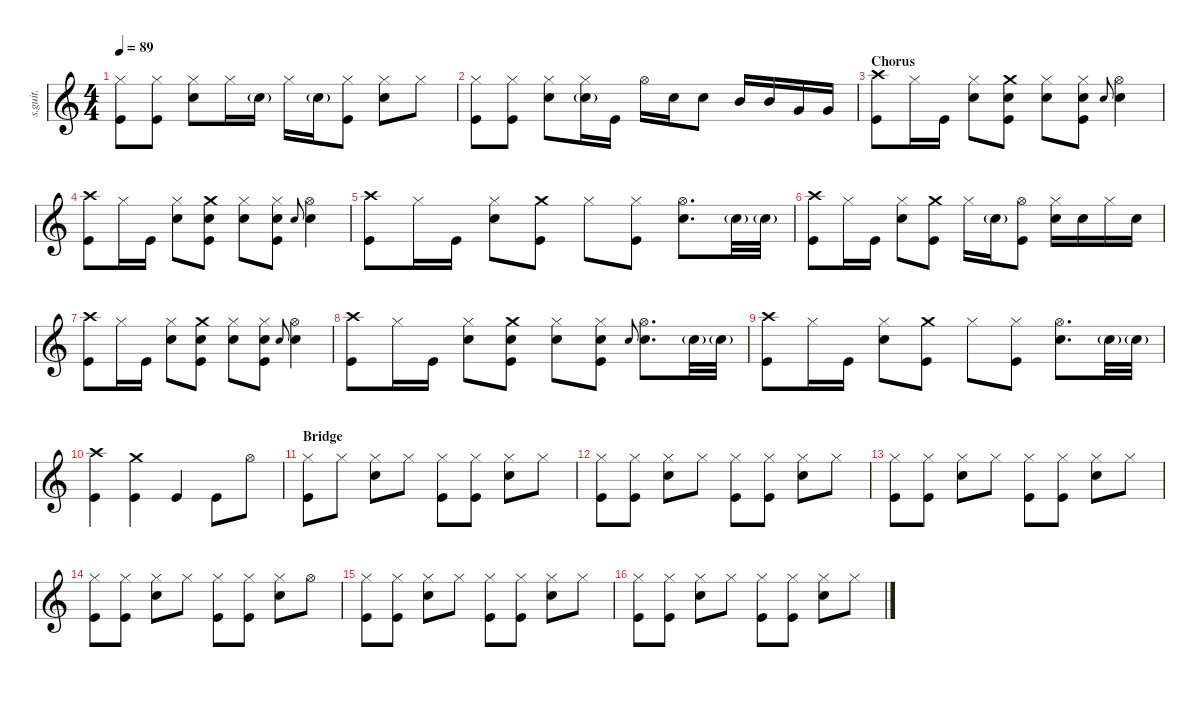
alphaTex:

\defaultSystemsLayout 4
\hideDynamics
\bracketExtendMode nobrackets
\track ("Chad Smith" "s.guit.") {instrument percussion}
\staff {score}
\articulation defaults
\ts (4 4)
\tempo 89
\clef g2
\ks c
("Hi-Hat (closed)" "Kick (hit)").8{lyrics (0 "") lyrics (1 "") lyrics (2 "") lyrics (3 "") lyrics (4 "") dy f} ("Hi-Hat (closed)" "Kick (hit)").8{lyrics (0 "") lyrics (1 "") lyrics (2 "") lyrics (3 "") lyrics (4 "")} ("Hi-Hat (closed)" "Snare (hit) 2").8{lyrics (0 "") lyrics (1 "") lyrics (2 "") lyrics (3 "") lyrics (4 "")} "Hi-Hat (closed)".16{lyrics (0 "") lyrics (1 "") lyrics (2 "") lyrics (3 "") lyrics (4 "")} "Snare (hit) 2"{g}.16{lyrics (0 "") lyrics (1 "") lyrics (2 "") lyrics (3 "") lyrics (4 "") dy ppp} "Hi-Hat (closed)".16{lyrics (0 "") lyrics (1 "") lyrics (2 "") lyrics (3 "") lyrics (4 "") dy fff} "Snare (hit) 2"{g}.16{lyrics (0 "") lyrics (1 "") lyrics (2 "") lyrics (3 "") lyrics (4 "") dy ppp} ("Hi-Hat (closed)" "Kick (hit)").8{lyrics (0 "") lyrics (1 "") lyrics (2 "") lyrics (3 "") lyrics (4 "") dy f} ("Hi-Hat (closed)" "Snare (hit) 2").8{lyrics (0 "") lyrics (1 "") lyrics (2 "") lyrics (3 "") lyrics (4 "")} "Hi-Hat (closed)".8{lyrics (0 "") lyrics (1 "") lyrics (2 "") lyrics (3 "") lyrics (4 "")} |
("Hi-Hat (closed)" "Kick (hit)").8{lyrics (0 "") lyrics (1 "") lyrics (2 "") lyrics (3 "") lyrics (4 "")} ("Hi-Hat (closed)" "Kick (hit)").8{lyrics (0 "") lyrics (1 "") lyrics (2 "") lyrics (3 "") lyrics (4 "")} ("Hi-Hat (closed)" "Snare (hit) 2").8{lyrics (0 "") lyrics (1 "") lyrics (2 "") lyrics (3 "") lyrics (4 "")} ("Hi-Hat (closed)" "Snare (hit) 2"{g}).16{lyrics (0 "") lyrics (1 "") lyrics (2 "") lyrics (3 "") lyrics (4 "")} "Kick (hit)".16{lyrics (0 "") lyrics (1 "") lyrics (2 "") lyrics (3 "") lyrics (4 "")} "Hi-Hat (open)".16{lyrics (0 "") lyrics (1 "") lyrics (2 "") lyrics (3 "") lyrics (4 "")} "Snare (hit) 2".16{lyrics (0 "") lyrics (1 "") lyrics (2 "") lyrics (3 "") lyrics (4 "")} "Snare (hit) 2".8{lyrics (0 "") lyrics (1 "") lyrics (2 "") lyrics (3 "") lyrics (4 "")} "Mid Tom (hit)".16{lyrics (0 "") lyrics (1 "") lyrics (2 "") lyrics (3 "") lyrics (4 "") dy fff} "Mid Tom (hit)".16{lyrics (0 "") lyrics (1 "") lyrics (2 "") lyrics (3 "") lyrics (4 "")} "Very Low Tom (hit)".16{lyrics (0 "") lyrics (1 "") lyrics (2 "") lyrics (3 "") lyrics (4 "")} "Very Low Tom (hit)".16{lyrics (0 "") lyrics (1 "") lyrics (2 "") lyrics (3 "") lyrics (4 "")} |
\section ("" "Chorus")
("Crash high (hit)" "Kick (hit)").8{lyrics (0 "") lyrics (1 "") lyrics (2 "") lyrics (3 "") lyrics (4 "") dy f} "Hi-Hat (closed)".16{lyrics (0 "") lyrics (1 "") lyrics (2 "") lyrics (3 "") lyrics (4 "")} "Kick (hit)".16{lyrics (0 "") lyrics (1 "") lyrics (2 "") lyrics (3 "") lyrics (4 "")} ("Hi-Hat (closed)" "Snare (hit) 2").8{lyrics (0 "") lyrics (1 "") lyrics (2 "") lyrics (3 "") lyrics (4 "")} ("Crash medium (hit)" "Hand Clap (hit)" "Kick (hit)").8{lyrics (0 "") lyrics (1 "") lyrics (2 "") lyrics (3 "") lyrics (4 "")} ("Hi-Hat (closed)" "Hand Clap (hit)").8{lyrics (0 "") lyrics (1 "") lyrics (2 "") lyrics (3 "") lyrics (4 "")} ("Hi-Hat (closed)" "Hand Clap (hit)" "Kick (hit)").8{lyrics (0 "") lyrics (1 "") lyrics (2 "") lyrics (3 "") lyrics (4 "")} "Snare (hit) 2".8{lyrics (0 "") lyrics (1 "") lyrics (2 "") lyrics (3 "") lyrics (4 "") gr onbeat} ("Hi-Hat (open)" "Snare (hit) 2").4{lyrics (0 "") lyrics (1 "") lyrics (2 "") lyrics (3 "") lyrics (4 "")} |
("Crash high (hit)" "Kick (hit)").8{lyrics (0 "") lyrics (1 "") lyrics (2 "") lyrics (3 "") lyrics (4 "")} "Hi-Hat (closed)".16{lyrics (0 "") lyrics (1 "") lyrics (2 "") lyrics (3 "") lyrics (4 "")} "Kick (hit)".16{lyrics (0 "") lyrics (1 "") lyrics (2 "") lyrics (3 "") lyrics (4 "")} ("Hi-Hat (closed)" "Snare (hit) 2").8{lyrics (0 "") lyrics (1 "") lyrics (2 "") lyrics (3 "") lyrics (4 "")} ("Crash medium (hit)" "Hand Clap (hit)" "Kick (hit)").8{lyrics (0 "") lyrics (1 "") lyrics (2 "") lyrics (3 "") lyrics (4 "")} ("Hi-Hat (closed)" "Hand Clap (hit)").8{lyrics (0 "") lyrics (1 "") lyrics (2 "") lyrics (3 "") lyrics (4 "")} ("Hi-Hat (closed)" "Hand Clap (hit)" "Kick (hit)").8{lyrics (0 "") lyrics (1 "") lyrics (2 "") lyrics (3 "") lyrics (4 "")} "Snare (hit) 2".8{lyrics (0 "") lyrics (1 "") lyrics (2 "") lyrics (3 "") lyrics (4 "") gr onbeat} ("Hi-Hat (open)" "Snare (hit) 2").4{lyrics (0 "") lyrics (1 "") lyrics (2 "") lyrics (3 "") lyrics (4 "")} |
("Crash high (hit)" "Kick (hit)").8{lyrics (0 "") lyrics (1 "") lyrics (2 "") lyrics (3 "") lyrics (4 "")} "Hi-Hat (closed)".16{lyrics (0 "") lyrics (1 "") lyrics (2 "") lyrics (3 "") lyrics (4 "")} "Kick (hit)".16{lyrics (0 "") lyrics (1 "") lyrics (2 "") lyrics (3 "") lyrics (4 "")} ("Hi-Hat (closed)" "Snare (hit) 2").8{lyrics (0 "") lyrics (1 "") lyrics (2 "") lyrics (3 "") lyrics (4 "")} ("Crash medium (hit)" "Kick (hit)").8{lyrics (0 "") lyrics (1 "") lyrics (2 "") lyrics (3 "") lyrics (4 "")} "Hi-Hat (closed)".8{lyrics (0 "") lyrics (1 "") lyrics (2 "") lyrics (3 "") lyrics (4 "") dy fff} ("Hi-Hat (closed)" "Kick (hit)").8{lyrics (0 "") lyrics (1 "") lyrics (2 "") lyrics (3 "") lyrics (4 "") dy f} ("Hi-Hat (open)" "Snare (hit) 2").8{d lyrics (0 "") lyrics (1 "") lyrics (2 "") lyrics (3 "") lyrics (4 "")} "Snare (hit) 2"{g}.32{lyrics (0 "") lyrics (1 "") lyrics (2 "") lyrics (3 "") lyrics (4 "") dy ppp} "Snare (hit) 2"{g}.32{lyrics (0 "") lyrics (1 "") lyrics (2 "") lyrics (3 "") lyrics (4 "")} |
("Crash high (hit)" "Kick (hit)").8{lyrics (0 "") lyrics (1 "") lyrics (2 "") lyrics (3 "") lyrics (4 "") dy f} "Hi-Hat (closed)".16{lyrics (0 "") lyrics (1 "") lyrics (2 "") lyrics (3 "") lyrics (4 "")} "Kick (hit)".16{lyrics (0 "") lyrics (1 "") lyrics (2 "") lyrics (3 "") lyrics (4 "")} ("Hi-Hat (closed)" "Snare (hit) 2").8{lyrics (0 "") lyrics (1 "") lyrics (2 "") lyrics (3 "") lyrics (4 "")} ("Crash medium (hit)" "Kick (hit)").8{lyrics (0 "") lyrics (1 "") lyrics (2 "") lyrics (3 "") lyrics (4 "")} "Hi-Hat (closed)".16{lyrics (0 "") lyrics (1 "") lyrics (2 "") lyrics (3 "") lyrics (4 "") dy fff} "Snare (hit) 2"{g}.16{lyrics (0 "") lyrics (1 "") lyrics (2 "") lyrics (3 "") lyrics (4 "") dy ppp} ("Hi-Hat (open)" "Kick (hit)").8{lyrics (0 "") lyrics (1 "") lyrics (2 "") lyrics (3 "") lyrics (4 "") dy f} ("Hi-Hat (closed)" "Snare (hit) 2").16{lyrics (0 "") lyrics (1 "") lyrics (2 "") lyrics (3 "") lyrics (4 "")} "Snare (hit) 2".16{lyrics (0 "") lyrics (1 "") lyrics (2 "") lyrics (3 "") lyrics (4 "")} "Hi-Hat (closed)".16{lyrics (0 "") lyrics (1 "") lyrics (2 "") lyrics (3 "") lyrics (4 "")} "Snare (hit) 2".16{lyrics (0 "") lyrics (1 "") lyrics (2 "") lyrics (3 "") lyrics (4 "")} |
("Crash high (hit)" "Kick (hit)").8{lyrics (0 "") lyrics (1 "") lyrics (2 "") lyrics (3 "") lyrics (4 "")} "Hi-Hat (closed)".16{lyrics (0 "") lyrics (1 "") lyrics (2 "") lyrics (3 "") lyrics (4 "")} "Kick (hit)".16{lyrics (0 "") lyrics (1 "") lyrics (2 "") lyrics (3 "") lyrics (4 "")} ("Hi-Hat (closed)" "Snare (hit) 2").8{lyrics (0 "") lyrics (1 "") lyrics (2 "") lyrics (3 "") lyrics (4 "")} ("Crash medium (hit)" "Hand Clap (hit)" "Kick (hit)").8{lyrics (0 "") lyrics (1 "") lyrics (2 "") lyrics (3 "") lyrics (4 "")} ("Hi-Hat (closed)" "Hand Clap (hit)").8{lyrics (0 "") lyrics (1 "") lyrics (2 "") lyrics (3 "") lyrics (4 "")} ("Hi-Hat (closed)" "Hand Clap (hit)" "Kick (hit)").8{lyrics (0 "") lyrics (1 "") lyrics (2 "") lyrics (3 "") lyrics (4 "")} "Snare (hit) 2".8{lyrics (0 "") lyrics (1 "") lyrics (2 "") lyrics (3 "") lyrics (4 "") gr onbeat} ("Hi-Hat (open)" "Snare (hit) 2").4{lyrics (0 "") lyrics (1 "") lyrics (2 "") lyrics (3 "") lyrics (4 "")} |
("Crash high (hit)" "Kick (hit)").8{lyrics (0 "") lyrics (1 "") lyrics (2 "") lyrics (3 "") lyrics (4 "")} "Hi-Hat (closed)".16{lyrics (0 "") lyrics (1 "") lyrics (2 "") lyrics (3 "") lyrics (4 "")} "Kick (hit)".16{lyrics (0 "") lyrics (1 "") lyrics (2 "") lyrics (3 "") lyrics (4 "")} ("Hi-Hat (closed)" "Snare (hit) 2").8{lyrics (0 "") lyrics (1 "") lyrics (2 "") lyrics (3 "") lyrics (4 "")} ("Crash medium (hit)" "Hand Clap (hit)" "Kick (hit)").8{lyrics (0 "") lyrics (1 "") lyrics (2 "") lyrics (3 "") lyrics (4 "")} ("Hi-Hat (closed)" "Hand Clap (hit)").8{lyrics (0 "") lyrics (1 "") lyrics (2 "") lyrics (3 "") lyrics (4 "")} ("Hi-Hat (closed)" "Hand Clap (hit)" "Kick (hit)").8{lyrics (0 "") lyrics (1 "") lyrics (2 "") lyrics (3 "") lyrics (4 "")} "Snare (hit) 2".8{lyrics (0 "") lyrics (1 "") lyrics (2 "") lyrics (3 "") lyrics (4 "") gr onbeat} ("Hi-Hat (open)" "Snare (hit) 2").8{d lyrics (0 "") lyrics (1 "") lyrics (2 "") lyrics (3 "") lyrics (4 "")} "Snare (hit) 2"{g}.32{lyrics (0 "") lyrics (1 "") lyrics (2 "") lyrics (3 "") lyrics (4 "") dy ppp} "Snare (hit) 2"{g}.32{lyrics (0 "") lyrics (1 "") lyrics (2 "") lyrics (3 "") lyrics (4 "")} |
("Crash high (hit)" "Kick (hit)").8{lyrics (0 "") lyrics (1 "") lyrics (2 "") lyrics (3 "") lyrics (4 "") dy f} "Hi-Hat (closed)".16{lyrics (0 "") lyrics (1 "") lyrics (2 "") lyrics (3 "") lyrics (4 "")} "Kick (hit)".16{lyrics (0 "") lyrics (1 "") lyrics (2 "") lyrics (3 "") lyrics (4 "")} ("Hi-Hat (closed)" "Snare (hit) 2").8{lyrics (0 "") lyrics (1 "") lyrics (2 "") lyrics (3 "") lyrics (4 "")} ("Crash medium (hit)" "Kick (hit)").8{lyrics (0 "") lyrics (1 "") lyrics (2 "") lyrics (3 "") lyrics (4 "")} "Hi-Hat (closed)".8{lyrics (0 "") lyrics (1 "") lyrics (2 "") lyrics (3 "") lyrics (4 "") dy fff} ("Hi-Hat (closed)" "Kick (hit)").8{lyrics (0 "") lyrics (1 "") lyrics (2 "") lyrics (3 "") lyrics (4 "") dy f} ("Hi-Hat (open)" "Snare (hit) 2").8{d lyrics (0 "") lyrics (1 "") lyrics (2 "") lyrics (3 "") lyrics (4 "")} "Snare (hit) 2"{g}.32{lyrics (0 "") lyrics (1 "") lyrics (2 "") lyrics (3 "") lyrics (4 "") dy ppp} "Snare (hit) 2"{g}.32{lyrics (0 "") lyrics (1 "") lyrics (2 "") lyrics (3 "") lyrics (4 "")} |
("Crash high (hit)" "Kick (hit)").4{lyrics (0 "") lyrics (1 "") lyrics (2 "") lyrics (3 "") lyrics (4 "") dy f} ("Crash medium (hit)" "Kick (hit)").4{lyrics (0 "") lyrics (1 "") lyrics (2 "") lyrics (3 "") lyrics (4 "")} "Kick (hit)".4{lyrics (0 "") lyrics (1 "") lyrics (2 "") lyrics (3 "") lyrics (4 "")} "Kick (hit)".8{lyrics (0 "") lyrics (1 "") lyrics (2 "") lyrics (3 "") lyrics (4 "")} "Hi-Hat (open)".8{lyrics (0 "") lyrics (1 "") lyrics (2 "") lyrics (3 "") lyrics (4 "")} |
\section ("" "Bridge")
("Hi-Hat (closed)" "Kick (hit)").8{lyrics (0 "") lyrics (1 "") lyrics (2 "") lyrics (3 "") lyrics (4 "")} "Hi-Hat (closed)".8{lyrics (0 "") lyrics (1 "") lyrics (2 "") lyrics (3 "") lyrics (4 "")} ("Hi-Hat (closed)" "Snare (hit) 2").8{lyrics (0 "") lyrics (1 "") lyrics (2 "") lyrics (3 "") lyrics (4 "")} "Hi-Hat (closed)".8{lyrics (0 "") lyrics (1 "") lyrics (2 "") lyrics (3 "") lyrics (4 "")} ("Hi-Hat (closed)" "Kick (hit)").8{lyrics (0 "") lyrics (1 "") lyrics (2 "") lyrics (3 "") lyrics (4 "")} ("Hi-Hat (closed)" "Kick (hit)").8{lyrics (0 "") lyrics (1 "") lyrics (2 "") lyrics (3 "") lyrics (4 "")} ("Hi-Hat (closed)" "Snare (hit) 2").8{lyrics (0 "") lyrics (1 "") lyrics (2 "") lyrics (3 "") lyrics (4 "")} "Hi-Hat (closed)".8{lyrics (0 "") lyrics (1 "") lyrics (2 "") lyrics (3 "") lyrics (4 "")} |
("Hi-Hat (closed)" "Kick (hit)").8{lyrics (0 "") lyrics (1 "") lyrics (2 "") lyrics (3 "") lyrics (4 "")} ("Hi-Hat (closed)" "Kick (hit)").8{lyrics (0 "") lyrics (1 "") lyrics (2 "") lyrics (3 "") lyrics (4 "")} ("Hi-Hat (closed)" "Snare (hit) 2").8{lyrics (0 "") lyrics (1 "") lyrics (2 "") lyrics (3 "") lyrics (4 "")} "Hi-Hat (closed)".8{lyrics (0 "") lyrics (1 "") lyrics (2 "") lyrics (3 "") lyrics (4 "")} ("Hi-Hat (closed)" "Kick (hit)").8{lyrics (0 "") lyrics (1 "") lyrics (2 "") lyrics (3 "") lyrics (4 "")} ("Hi-Hat (closed)" "Kick (hit)").8{lyrics (0 "") lyrics (1 "") lyrics (2 "") lyrics (3 "") lyrics (4 "")} ("Hi-Hat (closed)" "Snare (hit) 2").8{lyrics (0 "") lyrics (1 "") lyrics (2 "") lyrics (3 "") lyrics (4 "")} "Hi-Hat (closed)".8{lyrics (0 "") lyrics (1 "") lyrics (2 "") lyrics (3 "") lyrics (4 "")} |
("Hi-Hat (closed)" "Kick (hit)").8{lyrics (0 "") lyrics (1 "") lyrics (2 "") lyrics (3 "") lyrics (4 "")} ("Hi-Hat (closed)" "Kick (hit)").8{lyrics (0 "") lyrics (1 "") lyrics (2 "") lyrics (3 "") lyrics (4 "")} ("Hi-Hat (closed)" "Snare (hit) 2").8{lyrics (0 "") lyrics (1 "") lyrics (2 "") lyrics (3 "") lyrics (4 "")} "Hi-Hat (closed)".8{lyrics (0 "") lyrics (1 "") lyrics (2 "") lyrics (3 "") lyrics (4 "")} ("Hi-Hat (closed)" "Kick (hit)").8{lyrics (0 "") lyrics (1 "") lyrics (2 "") lyrics (3 "") lyrics (4 "")} ("Hi-Hat (closed)" "Kick (hit)").8{lyrics (0 "") lyrics (1 "") lyrics (2 "") lyrics (3 "") lyrics (4 "")} ("Hi-Hat (closed)" "Snare (hit) 2").8{lyrics (0 "") lyrics (1 "") lyrics (2 "") lyrics (3 "") lyrics (4 "")} "Hi-Hat (closed)".8{lyrics (0 "") lyrics (1 "") lyrics (2 "") lyrics (3 "") lyrics (4 "")} |
("Hi-Hat (closed)" "Kick (hit)").8{lyrics (0 "") lyrics (1 "") lyrics (2 "") lyrics (3 "") lyrics (4 "")} ("Hi-Hat (closed)" "Kick (hit)").8{lyrics (0 "") lyrics (1 "") lyrics (2 "") lyrics (3 "") lyrics (4 "")} ("Hi-Hat (closed)" "Snare (hit) 2").8{lyrics (0 "") lyrics (1 "") lyrics (2 "") lyrics (3 "") lyrics (4 "")} "Hi-Hat (closed)".8{lyrics (0 "") lyrics (1 "") lyrics (2 "") lyrics (3 "") lyrics (4 "")} ("Hi-Hat (closed)" "Kick (hit)").8{lyrics (0 "") lyrics (1 "") lyrics (2 "") lyrics (3 "") lyrics (4 "")} ("Hi-Hat (closed)" "Kick (hit)").8{lyrics (0 "") lyrics (1 "") lyrics (2 "") lyrics (3 "") lyrics (4 "")} ("Hi-Hat (closed)" "Snare (hit) 2").8{lyrics (0 "") lyrics (1 "") lyrics (2 "") lyrics (3 "") lyrics (4 "")} "Hi-Hat (open)".8{lyrics (0 "") lyrics (1 "") lyrics (2 "") lyrics (3 "") lyrics (4 "")} |
("Hi-Hat (closed)" "Kick (hit)").8{lyrics (0 "") lyrics (1 "") lyrics (2 "") lyrics (3 "") lyrics (4 "")} ("Hi-Hat (closed)" "Kick (hit)").8{lyrics (0 "") lyrics (1 "") lyrics (2 "") lyrics (3 "") lyrics (4 "")} ("Hi-Hat (closed)" "Snare (hit) 2").8{lyrics (0 "") lyrics (1 "") lyrics (2 "") lyrics (3 "") lyrics (4 "")} "Hi-Hat (closed)".8{lyrics (0 "") lyrics (1 "") lyrics (2 "") lyrics (3 "") lyrics (4 "")} ("Hi-Hat (closed)" "Kick (hit)").8{lyrics (0 "") lyrics (1 "") lyrics (2 "") lyrics (3 "") lyrics (4 "")} ("Hi-Hat (closed)" "Kick (hit)").8{lyrics (0 "") lyrics (1 "") lyrics (2 "") lyrics (3 "") lyrics (4 "")} ("Hi-Hat (closed)" "Snare (hit) 2").8{lyrics (0 "") lyrics (1 "") lyrics (2 "") lyrics (3 "") lyrics (4 "")} "Hi-Hat (closed)".8{lyrics (0 "") lyrics (1 "") lyrics (2 "") lyrics (3 "") lyrics (4 "")} |
("Hi-Hat (closed)" "Kick (hit)").8{lyrics (0 "") lyrics (1 "") lyrics (2 "") lyrics (3 "") lyrics (4 "")} ("Hi-Hat (closed)" "Kick (hit)").8{lyrics (0 "") lyrics (1 "") lyrics (2 "") lyrics (3 "") lyrics (4 "")} ("Hi-Hat (closed)" "Snare (hit) 2").8{lyrics (0 "") lyrics (1 "") lyrics (2 "") lyrics (3 "") lyrics (4 "")} "Hi-Hat (closed)".8{lyrics (0 "") lyrics (1 "") lyrics (2 "") lyrics (3 "") lyrics (4 "")} ("Hi-Hat (closed)" "Kick (hit)").8{lyrics (0 "") lyrics (1 "") lyrics (2 "") lyrics (3 "") lyrics (4 "")} ("Hi-Hat (closed)" "Kick (hit)").8{lyrics (0 "") lyrics (1 "") lyrics (2 "") lyrics (3 "") lyrics (4 "")} ("Hi-Hat (closed)" "Snare (hit) 2").8{lyrics (0 "") lyrics (1 "") lyrics (2 "") lyrics (3 "") lyrics (4 "")} "Hi-Hat (closed)".8{lyrics (0 "") lyrics (1 "") lyrics (2 "") lyrics (3 "") lyrics (4 "")}
